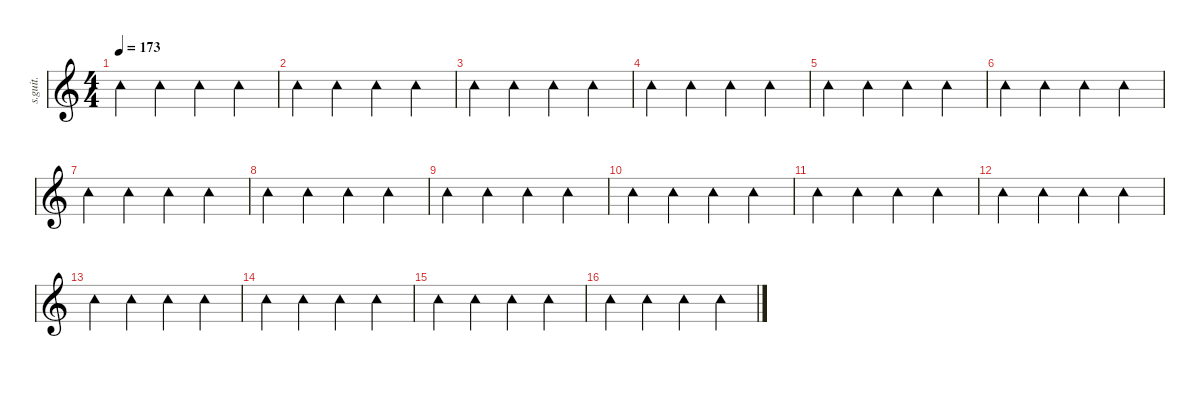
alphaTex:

\defaultSystemsLayout 4
\hideDynamics
\bracketExtendMode nobrackets
\track ("II (Extras)" "s.guit.") {instrument percussion}
\staff {score}
\articulation defaults
\ts (4 4)
\tempo 173
\clef g2
\ks c "Tambourine (hit)".4{lyrics (0 "") lyrics (1 "") lyrics (2 "") lyrics (3 "") lyrics (4 "") dy mf} "Tambourine (hit)".4{lyrics (0 "") lyrics (1 "") lyrics (2 "") lyrics (3 "") lyrics (4 "")} "Tambourine (hit)".4{lyrics (0 "") lyrics (1 "") lyrics (2 "") lyrics (3 "") lyrics (4 "")} "Tambourine (hit)".4{lyrics (0 "") lyrics (1 "") lyrics (2 "") lyrics (3 "") lyrics (4 "")}
|
"Tambourine (hit)".4{lyrics (0 "") lyrics (1 "") lyrics (2 "") lyrics (3 "") lyrics (4 "")} "Tambourine (hit)".4{lyrics (0 "") lyrics (1 "") lyrics (2 "") lyrics (3 "") lyrics (4 "")} "Tambourine (hit)".4{lyrics (0 "") lyrics (1 "") lyrics (2 "") lyrics (3 "") lyrics (4 "")} "Tambourine (hit)".4{lyrics (0 "") lyrics (1 "") lyrics (2 "") lyrics (3 "") lyrics (4 "")} |
"Tambourine (hit)".4{lyrics (0 "") lyrics (1 "") lyrics (2 "") lyrics (3 "") lyrics (4 "")} "Tambourine (hit)".4{lyrics (0 "") lyrics (1 "") lyrics (2 "") lyrics (3 "") lyrics (4 "")} "Tambourine (hit)".4{lyrics (0 "") lyrics (1 "") lyrics (2 "") lyrics (3 "") lyrics (4 "")} "Tambourine (hit)".4{lyrics (0 "") lyrics (1 "") lyrics (2 "") lyrics (3 "") lyrics (4 "")} |
"Tambourine (hit)".4{lyrics (0 "") lyrics (1 "") lyrics (2 "") lyrics (3 "") lyrics (4 "")} "Tambourine (hit)".4{lyrics (0 "") lyrics (1 "") lyrics (2 "") lyrics (3 "") lyrics (4 "")} "Tambourine (hit)".4{lyrics (0 "") lyrics (1 "") lyrics (2 "") lyrics (3 "") lyrics (4 "")} "Tambourine (hit)".4{lyrics (0 "") lyrics (1 "") lyrics (2 "") lyrics (3 "") lyrics (4 "")} |
"Tambourine (hit)".4{lyrics (0 "") lyrics (1 "") lyrics (2 "") lyrics (3 "") lyrics (4 "")} "Tambourine (hit)".4{lyrics (0 "") lyrics (1 "") lyrics (2 "") lyrics (3 "") lyrics (4 "")} "Tambourine (hit)".4{lyrics (0 "") lyrics (1 "") lyrics (2 "") lyrics (3 "") lyrics (4 "")} "Tambourine (hit)".4{lyrics (0 "") lyrics (1 "") lyrics (2 "") lyrics (3 "") lyrics (4 "")} |
"Tambourine (hit)".4{lyrics (0 "") lyrics (1 "") lyrics (2 "") lyrics (3 "") lyrics (4 "")} "Tambourine (hit)".4{lyrics (0 "") lyrics (1 "") lyrics (2 "") lyrics (3 "") lyrics (4 "")} "Tambourine (hit)".4{lyrics (0 "") lyrics (1 "") lyrics (2 "") lyrics (3 "") lyrics (4 "")} "Tambourine (hit)".4{lyrics (0 "") lyrics (1 "") lyrics (2 "") lyrics (3 "") lyrics (4 "")} |
"Tambourine (hit)".4{lyrics (0 "") lyrics (1 "") lyrics (2 "") lyrics (3 "") lyrics (4 "")} "Tambourine (hit)".4{lyrics (0 "") lyrics (1 "") lyrics (2 "") lyrics (3 "") lyrics (4 "")} "Tambourine (hit)".4{lyrics (0 "") lyrics (1 "") lyrics (2 "") lyrics (3 "") lyrics (4 "")} "Tambourine (hit)".4{lyrics (0 "") lyrics (1 "") lyrics (2 "") lyrics (3 "") lyrics (4 "")} |
"Tambourine (hit)".4{lyrics (0 "") lyrics (1 "") lyrics (2 "") lyrics (3 "") lyrics (4 "")} "Tambourine (hit)".4{lyrics (0 "") lyrics (1 "") lyrics (2 "") lyrics (3 "") lyrics (4 "")} "Tambourine (hit)".4{lyrics (0 "") lyrics (1 "") lyrics (2 "") lyrics (3 "") lyrics (4 "")} "Tambourine (hit)".4{lyrics (0 "") lyrics (1 "") lyrics (2 "") lyrics (3 "") lyrics (4 "")} |
"Tambourine (hit)".4{lyrics (0 "") lyrics (1 "") lyrics (2 "") lyrics (3 "") lyrics (4 "")} "Tambourine (hit)".4{lyrics (0 "") lyrics (1 "") lyrics (2 "") lyrics (3 "") lyrics (4 "")} "Tambourine (hit)".4{lyrics (0 "") lyrics (1 "") lyrics (2 "") lyrics (3 "") lyrics (4 "")} "Tambourine (hit)".4{lyrics (0 "") lyrics (1 "") lyrics (2 "") lyrics (3 "") lyrics (4 "")} |
"Tambourine (hit)".4{lyrics (0 "") lyrics (1 "") lyrics (2 "") lyrics (3 "") lyrics (4 "")} "Tambourine (hit)".4{lyrics (0 "") lyrics (1 "") lyrics (2 "") lyrics (3 "") lyrics (4 "")} "Tambourine (hit)".4{lyrics (0 "") lyrics (1 "") lyrics (2 "") lyrics (3 "") lyrics (4 "")} "Tambourine (hit)".4{lyrics (0 "") lyrics (1 "") lyrics (2 "") lyrics (3 "") lyrics (4 "")} |
"Tambourine (hit)".4{lyrics (0 "") lyrics (1 "") lyrics (2 "") lyrics (3 "") lyrics (4 "")} "Tambourine (hit)".4{lyrics (0 "") lyrics (1 "") lyrics (2 "") lyrics (3 "") lyrics (4 "")} "Tambourine (hit)".4{lyrics (0 "") lyrics (1 "") lyrics (2 "") lyrics (3 "") lyrics (4 "")} "Tambourine (hit)".4{lyrics (0 "") lyrics (1 "") lyrics (2 "") lyrics (3 "") lyrics (4 "")} |
"Tambourine (hit)".4{lyrics (0 "") lyrics (1 "") lyrics (2 "") lyrics (3 "") lyrics (4 "")} "Tambourine (hit)".4{lyrics (0 "") lyrics (1 "") lyrics (2 "") lyrics (3 "") lyrics (4 "")} "Tambourine (hit)".4{lyrics (0 "") lyrics (1 "") lyrics (2 "") lyrics (3 "") lyrics (4 "")} "Tambourine (hit)".4{lyrics (0 "") lyrics (1 "") lyrics (2 "") lyrics (3 "") lyrics (4 "")} |
"Tambourine (hit)".4{lyrics (0 "") lyrics (1 "") lyrics (2 "") lyrics (3 "") lyrics (4 "")} "Tambourine (hit)".4{lyrics (0 "") lyrics (1 "") lyrics (2 "") lyrics (3 "") lyrics (4 "")} "Tambourine (hit)".4{lyrics (0 "") lyrics (1 "") lyrics (2 "") lyrics (3 "") lyrics (4 "")} "Tambourine (hit)".4{lyrics (0 "") lyrics (1 "") lyrics (2 "") lyrics (3 "") lyrics (4 "")} |
"Tambourine (hit)".4{lyrics (0 "") lyrics (1 "") lyrics (2 "") lyrics (3 "") lyrics (4 "")} "Tambourine (hit)".4{lyrics (0 "") lyrics (1 "") lyrics (2 "") lyrics (3 "") lyrics (4 "")} "Tambourine (hit)".4{lyrics (0 "") lyrics (1 "") lyrics (2 "") lyrics (3 "") lyrics (4 "")} "Tambourine (hit)".4{lyrics (0 "") lyrics (1 "") lyrics (2 "") lyrics (3 "") lyrics (4 "")} |
"Tambourine (hit)".4{lyrics (0 "") lyrics (1 "") lyrics (2 "") lyrics (3 "") lyrics (4 "")} "Tambourine (hit)".4{lyrics (0 "") lyrics (1 "") lyrics (2 "") lyrics (3 "") lyrics (4 "")} "Tambourine (hit)".4{lyrics (0 "") lyrics (1 "") lyrics (2 "") lyrics (3 "") lyrics (4 "")} "Tambourine (hit)".4{lyrics (0 "") lyrics (1 "") lyrics (2 "") lyrics (3 "") lyrics (4 "")} |
"Tambourine (hit)".4{lyrics (0 "") lyrics (1 "") lyrics (2 "") lyrics (3 "") lyrics (4 "")} "Tambourine (hit)".4{lyrics (0 "") lyrics (1 "") lyrics (2 "") lyrics (3 "") lyrics (4 "")} "Tambourine (hit)".4{lyrics (0 "") lyrics (1 "") lyrics (2 "") lyrics (3 "") lyrics (4 "")} "Tambourine (hit)".4{lyrics (0 "") lyrics (1 "") lyrics (2 "") lyrics (3 "") lyrics (4 "")}
